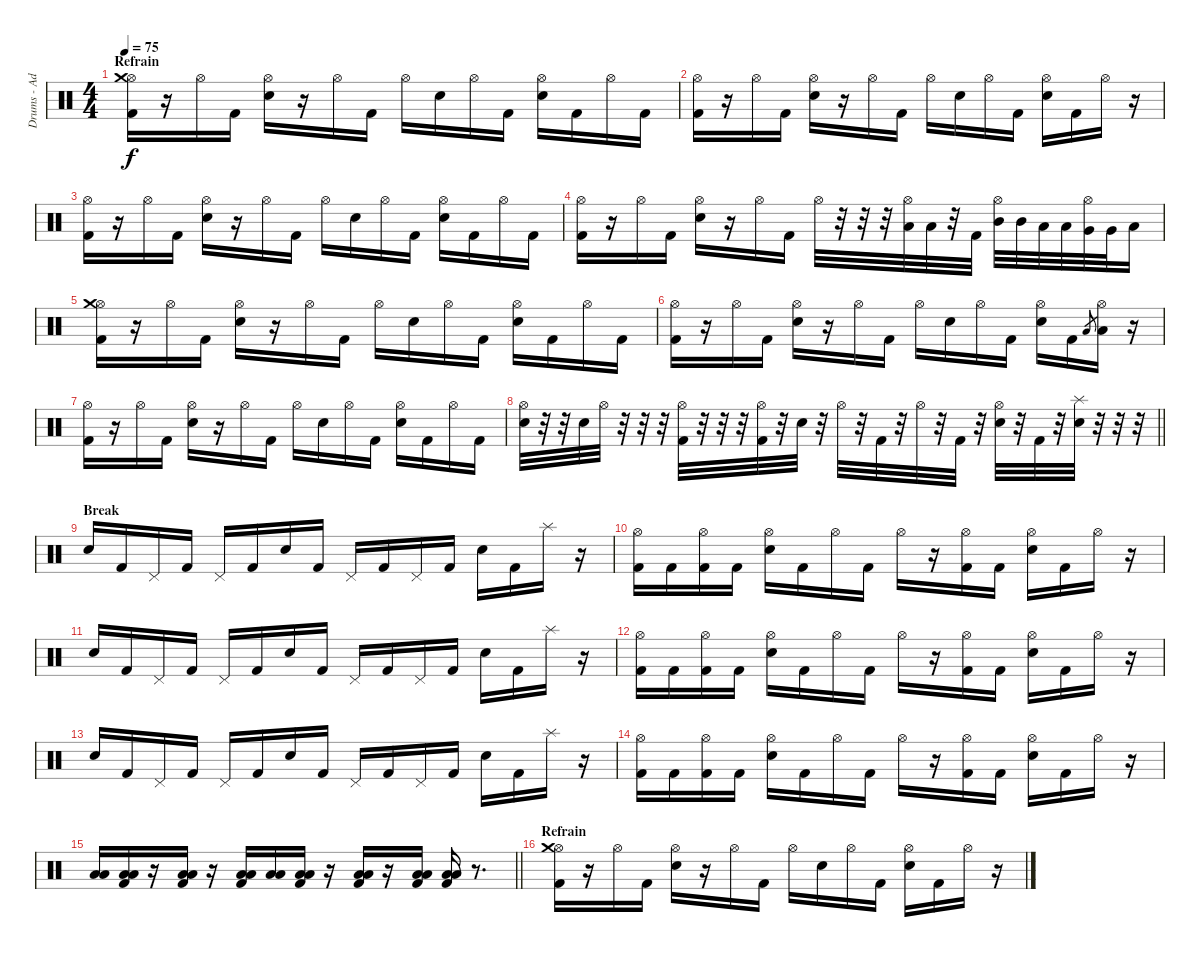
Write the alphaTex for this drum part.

\track ("Drums - Adrian Robinson" "Drums - Ad") {instrument percussion}
\staff {score}
\articulation defaults
\ts (4 4)
\section ("" "Refrain")
\tempo 75
\clef neutral
\ks c
("Hi-Hat (open)" "Crash medium (hit)" "Kick (hit) 2").16{dy f} r.16 "Hi-Hat (open)".16 "Kick (hit) 2".16 ("Hi-Hat (open)" "Electric Snare (hit)").16 r.16 "Hi-Hat (open)".16 "Kick (hit) 2".16 "Hi-Hat (open)".16 "Electric Snare (hit)".16 "Hi-Hat (open)".16 "Kick (hit) 2".16 ("Hi-Hat (open)" "Electric Snare (hit)").16 "Kick (hit) 2".16 "Hi-Hat (open)".16 "Kick (hit) 2".16 |
("Hi-Hat (open)" "Kick (hit) 2").16 r.16 "Hi-Hat (open)".16 "Kick (hit) 2".16 ("Hi-Hat (open)" "Electric Snare (hit)").16 r.16 "Hi-Hat (open)".16 "Kick (hit) 2".16 "Hi-Hat (open)".16 "Electric Snare (hit)".16 "Hi-Hat (open)".16 "Kick (hit) 2".16 ("Hi-Hat (open)" "Electric Snare (hit)").16 "Kick (hit) 2".16 "Hi-Hat (open)".16 r.16 |
("Hi-Hat (open)" "Kick (hit) 2").16 r.16 "Hi-Hat (open)".16 "Kick (hit) 2".16 ("Hi-Hat (open)" "Electric Snare (hit)").16 r.16 "Hi-Hat (open)".16 "Kick (hit) 2".16 "Hi-Hat (open)".16 "Electric Snare (hit)".16 "Hi-Hat (open)".16 "Kick (hit) 2".16 ("Hi-Hat (open)" "Electric Snare (hit)").16 "Kick (hit) 2".16 "Hi-Hat (open)".16 "Kick (hit) 2".16 |
("Hi-Hat (open)" "Kick (hit) 2").16 r.16 "Hi-Hat (open)".16 "Kick (hit) 2".16 ("Hi-Hat (open)" "Electric Snare (hit)").16 r.16 "Hi-Hat (open)".16 "Kick (hit) 2".16 "Hi-Hat (open)".32 r.32 r.32 r.32 ("Hi-Hat (open)" "Low Tom (hit)").32 "Low Tom (hit)".32 r.32 "Kick (hit) 2".32 ("Hi-Hat (open)" "Mid Tom (hit)").32 "Mid Tom (hit)".32 "Low Tom (hit)".32 "Low Tom (hit)".32 ("Hi-Hat (open)" "Very Low Tom (hit)").32 "Very Low Tom (hit)".32 "Low Floor Tom (hit)".16 |
("Hi-Hat (open)" "Crash medium (hit)" "Kick (hit) 2").16 r.16 "Hi-Hat (open)".16 "Kick (hit) 2".16 ("Hi-Hat (open)" "Electric Snare (hit)").16 r.16 "Hi-Hat (open)".16 "Kick (hit) 2".16 "Hi-Hat (open)".16 "Electric Snare (hit)".16 "Hi-Hat (open)".16 "Kick (hit) 2".16 ("Hi-Hat (open)" "Electric Snare (hit)").16 "Kick (hit) 2".16 "Hi-Hat (open)".16 "Kick (hit) 2".16 |
("Hi-Hat (open)" "Kick (hit) 2").16 r.16 "Hi-Hat (open)".16 "Kick (hit) 2".16 ("Hi-Hat (open)" "Electric Snare (hit)").16 r.16 "Hi-Hat (open)".16 "Kick (hit) 2".16 "Hi-Hat (open)".16 "Electric Snare (hit)".16 "Hi-Hat (open)".16 "Kick (hit) 2".16 ("Hi-Hat (open)" "Electric Snare (hit)").16 "Kick (hit) 2".16 "Low Floor Tom (hit)".8{gr} ("Hi-Hat (open)" "Low Floor Tom (hit)").16 r.16 |
("Hi-Hat (open)" "Kick (hit) 2").16 r.16 "Hi-Hat (open)".16 "Kick (hit) 2".16 ("Hi-Hat (open)" "Electric Snare (hit)").16 r.16 "Hi-Hat (open)".16 "Kick (hit) 2".16 "Hi-Hat (open)".16 "Electric Snare (hit)".16 "Hi-Hat (open)".16 "Kick (hit) 2".16 ("Hi-Hat (open)" "Electric Snare (hit)").16 "Kick (hit) 2".16 "Hi-Hat (open)".16 "Kick (hit) 2".16 |
\barLineRight lightlight
("Hi-Hat (open)" "Electric Snare (hit)").32 r.32 r.32 "Electric Snare (hit)".32 "Hi-Hat (open)".32 r.32 r.32 r.32 ("Hi-Hat (open)" "Kick (hit) 2").32 r.32 r.32 r.32 ("Hi-Hat (open)" "Kick (hit) 2").32 r.32 "Electric Snare (hit)".32 r.32 "Hi-Hat (open)".32 r.32 "Kick (hit) 2".32 r.32 "Hi-Hat (open)".32 r.32 "Kick (hit) 2".32 r.32 ("Hi-Hat (open)" "Electric Snare (hit)").32 r.32 "Kick (hit) 2".32 r.32 ("Splash (hit)" "Electric Snare (hit)").32 r.32 r.32 r.32 |
\section ("" "Break")
"Electric Snare (hit)".16 "Kick (hit) 2".16 "Pedal Hi-Hat (hit)".16 "Kick (hit) 2".16 "Pedal Hi-Hat (hit)".16 "Kick (hit) 2".16 "Electric Snare (hit)".16 "Kick (hit) 2".16 "Pedal Hi-Hat (hit)".16 "Kick (hit) 2".16 "Pedal Hi-Hat (hit)".16 "Kick (hit) 2".16 "Electric Snare (hit)".16 "Kick (hit) 2".16 "Splash (hit)".16 r.16 |
("Hi-Hat (open)" "Kick (hit) 2").16 "Kick (hit) 2".16 ("Hi-Hat (open)" "Kick (hit) 2").16 "Kick (hit) 2".16 ("Hi-Hat (open)" "Electric Snare (hit)").16 "Kick (hit) 2".16 "Hi-Hat (open)".16 "Kick (hit) 2".16 "Hi-Hat (open)".16 r.16 ("Hi-Hat (open)" "Kick (hit) 2").16 "Kick (hit) 2".16 ("Hi-Hat (open)" "Electric Snare (hit)").16 "Kick (hit) 2".16 "Hi-Hat (open)".16 r.16 |
"Electric Snare (hit)".16 "Kick (hit) 2".16 "Pedal Hi-Hat (hit)".16 "Kick (hit) 2".16 "Pedal Hi-Hat (hit)".16 "Kick (hit) 2".16 "Electric Snare (hit)".16 "Kick (hit) 2".16 "Pedal Hi-Hat (hit)".16 "Kick (hit) 2".16 "Pedal Hi-Hat (hit)".16 "Kick (hit) 2".16 "Electric Snare (hit)".16 "Kick (hit) 2".16 "Splash (hit)".16 r.16 |
("Hi-Hat (open)" "Kick (hit) 2").16 "Kick (hit) 2".16 ("Hi-Hat (open)" "Kick (hit) 2").16 "Kick (hit) 2".16 ("Hi-Hat (open)" "Electric Snare (hit)").16 "Kick (hit) 2".16 "Hi-Hat (open)".16 "Kick (hit) 2".16 "Hi-Hat (open)".16 r.16 ("Hi-Hat (open)" "Kick (hit) 2").16 "Kick (hit) 2".16 ("Hi-Hat (open)" "Electric Snare (hit)").16 "Kick (hit) 2".16 "Hi-Hat (open)".16 r.16 |
"Electric Snare (hit)".16 "Kick (hit) 2".16 "Pedal Hi-Hat (hit)".16 "Kick (hit) 2".16 "Pedal Hi-Hat (hit)".16 "Kick (hit) 2".16 "Electric Snare (hit)".16 "Kick (hit) 2".16 "Pedal Hi-Hat (hit)".16 "Kick (hit) 2".16 "Pedal Hi-Hat (hit)".16 "Kick (hit) 2".16 "Electric Snare (hit)".16 "Kick (hit) 2".16 "Splash (hit)".16 r.16 |
("Hi-Hat (open)" "Kick (hit) 2").16 "Kick (hit) 2".16 ("Hi-Hat (open)" "Kick (hit) 2").16 "Kick (hit) 2".16 ("Hi-Hat (open)" "Electric Snare (hit)").16 "Kick (hit) 2".16 "Hi-Hat (open)".16 "Kick (hit) 2".16 "Hi-Hat (open)".16 r.16 ("Hi-Hat (open)" "Kick (hit) 2").16 "Kick (hit) 2".16 ("Hi-Hat (open)" "Electric Snare (hit)").16 "Kick (hit) 2".16 "Hi-Hat (open)".16 r.16 |
\barLineRight lightlight
("Low Tom (hit)" "Low Tom (hit)").16 ("Low Floor Tom (hit)" "Low Floor Tom (hit)" "Kick (hit) 2").16 r.16 ("Low Floor Tom (hit)" "Low Floor Tom (hit)" "Kick (hit) 2").16 r.16 ("Low Floor Tom (hit)" "Low Floor Tom (hit)" "Kick (hit) 2").16 ("Low Tom (hit)" "Low Tom (hit)").16 ("Low Floor Tom (hit)" "Low Floor Tom (hit)" "Kick (hit) 2").16 r.16 ("Low Floor Tom (hit)" "Low Floor Tom (hit)" "Kick (hit) 2").16 r.16 ("Low Floor Tom (hit)" "Low Floor Tom (hit)" "Kick (hit) 2").16 ("Low Tom (hit)" "Low Tom (hit)" "Kick (hit) 2").16 r.8{d} |
\section ("" "Refrain")
("Hi-Hat (open)" "Crash medium (hit)" "Kick (hit) 2").16 r.16 "Hi-Hat (open)".16 "Kick (hit) 2".16 ("Hi-Hat (open)" "Electric Snare (hit)").16 r.16 "Hi-Hat (open)".16 "Kick (hit) 2".16 "Hi-Hat (open)".16 "Electric Snare (hit)".16 "Hi-Hat (open)".16 "Kick (hit) 2".16 ("Hi-Hat (open)" "Electric Snare (hit)").16 "Kick (hit) 2".16 "Hi-Hat (open)".16 r.16
